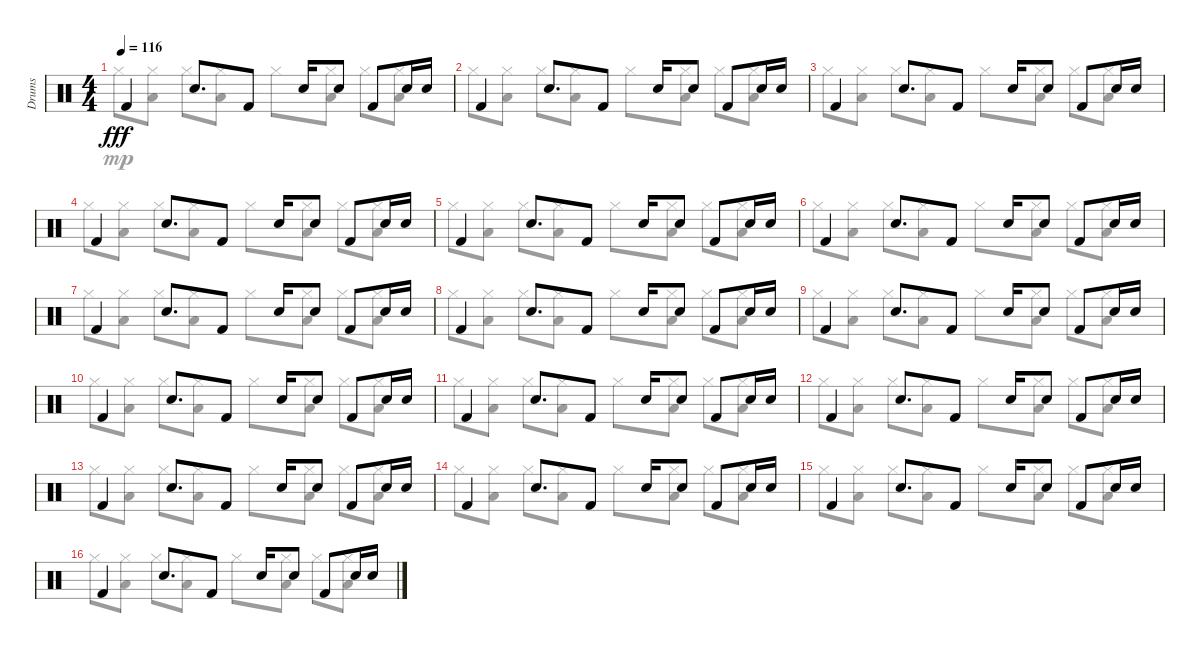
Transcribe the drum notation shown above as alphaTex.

\track ("Drums" "Drums") {instrument percussion}
\staff {score}
\articulation defaults
\voice
\ts (4 4)
\tempo 116
\clef neutral
\ks c "Kick (hit) 2".4{dy fff} "Electric Snare (hit)".8{d} "Kick (hit) 2".8 "Electric Snare (hit)".16 "Electric Snare (hit)".8 "Kick (hit) 2".8 "Electric Snare (hit)".16 "Electric Snare (hit)".16
|
"Kick (hit) 2".4 "Electric Snare (hit)".8{d} "Kick (hit) 2".8 "Electric Snare (hit)".16 "Electric Snare (hit)".8 "Kick (hit) 2".8 "Electric Snare (hit)".16 "Electric Snare (hit)".16 |
"Kick (hit) 2".4 "Electric Snare (hit)".8{d} "Kick (hit) 2".8 "Electric Snare (hit)".16 "Electric Snare (hit)".8 "Kick (hit) 2".8 "Electric Snare (hit)".16 "Electric Snare (hit)".16 |
"Kick (hit) 2".4 "Electric Snare (hit)".8{d} "Kick (hit) 2".8 "Electric Snare (hit)".16 "Electric Snare (hit)".8 "Kick (hit) 2".8 "Electric Snare (hit)".16 "Electric Snare (hit)".16 |
"Kick (hit) 2".4 "Electric Snare (hit)".8{d} "Kick (hit) 2".8 "Electric Snare (hit)".16 "Electric Snare (hit)".8 "Kick (hit) 2".8 "Electric Snare (hit)".16 "Electric Snare (hit)".16 |
"Kick (hit) 2".4 "Electric Snare (hit)".8{d} "Kick (hit) 2".8 "Electric Snare (hit)".16 "Electric Snare (hit)".8 "Kick (hit) 2".8 "Electric Snare (hit)".16 "Electric Snare (hit)".16 |
"Kick (hit) 2".4 "Electric Snare (hit)".8{d} "Kick (hit) 2".8 "Electric Snare (hit)".16 "Electric Snare (hit)".8 "Kick (hit) 2".8 "Electric Snare (hit)".16 "Electric Snare (hit)".16 |
"Kick (hit) 2".4 "Electric Snare (hit)".8{d} "Kick (hit) 2".8 "Electric Snare (hit)".16 "Electric Snare (hit)".8 "Kick (hit) 2".8 "Electric Snare (hit)".16 "Electric Snare (hit)".16 |
"Kick (hit) 2".4 "Electric Snare (hit)".8{d} "Kick (hit) 2".8 "Electric Snare (hit)".16 "Electric Snare (hit)".8 "Kick (hit) 2".8 "Electric Snare (hit)".16 "Electric Snare (hit)".16 |
"Kick (hit) 2".4 "Electric Snare (hit)".8{d} "Kick (hit) 2".8 "Electric Snare (hit)".16 "Electric Snare (hit)".8 "Kick (hit) 2".8 "Electric Snare (hit)".16 "Electric Snare (hit)".16 |
"Kick (hit) 2".4 "Electric Snare (hit)".8{d} "Kick (hit) 2".8 "Electric Snare (hit)".16 "Electric Snare (hit)".8 "Kick (hit) 2".8 "Electric Snare (hit)".16 "Electric Snare (hit)".16 |
"Kick (hit) 2".4 "Electric Snare (hit)".8{d} "Kick (hit) 2".8 "Electric Snare (hit)".16 "Electric Snare (hit)".8 "Kick (hit) 2".8 "Electric Snare (hit)".16 "Electric Snare (hit)".16 |
"Kick (hit) 2".4 "Electric Snare (hit)".8{d} "Kick (hit) 2".8 "Electric Snare (hit)".16 "Electric Snare (hit)".8 "Kick (hit) 2".8 "Electric Snare (hit)".16 "Electric Snare (hit)".16 |
"Kick (hit) 2".4 "Electric Snare (hit)".8{d} "Kick (hit) 2".8 "Electric Snare (hit)".16 "Electric Snare (hit)".8 "Kick (hit) 2".8 "Electric Snare (hit)".16 "Electric Snare (hit)".16 |
"Kick (hit) 2".4 "Electric Snare (hit)".8{d} "Kick (hit) 2".8 "Electric Snare (hit)".16 "Electric Snare (hit)".8 "Kick (hit) 2".8 "Electric Snare (hit)".16 "Electric Snare (hit)".16 |
"Kick (hit) 2".4 "Electric Snare (hit)".8{d} "Kick (hit) 2".8 "Electric Snare (hit)".16 "Electric Snare (hit)".8 "Kick (hit) 2".8 "Electric Snare (hit)".16 "Electric Snare (hit)".16
\voice
\clef neutral
\ottava regular
\simile none
\ks c "Hi-Hat (closed)".8{dy mp}
("Hi-Hat (closed)" "Low Floor Tom (hit)").8 "Hi-Hat (closed)".8 ("Hi-Hat (closed)" "Low Floor Tom (hit)").8 "Hi-Hat (closed)".8 ("Hi-Hat (closed)" "Low Floor Tom (hit)").8 "Hi-Hat (closed)".8 ("Hi-Hat (closed)" "Low Floor Tom (hit)").8 |
"Hi-Hat (closed)".8 ("Hi-Hat (closed)" "Low Floor Tom (hit)").8 "Hi-Hat (closed)".8 ("Hi-Hat (closed)" "Low Floor Tom (hit)").8 "Hi-Hat (closed)".8 ("Hi-Hat (closed)" "Low Floor Tom (hit)").8 "Hi-Hat (closed)".8 ("Hi-Hat (closed)" "Low Floor Tom (hit)").8 |
"Hi-Hat (closed)".8 ("Hi-Hat (closed)" "Low Floor Tom (hit)").8 "Hi-Hat (closed)".8 ("Hi-Hat (closed)" "Low Floor Tom (hit)").8 "Hi-Hat (closed)".8 ("Hi-Hat (closed)" "Low Floor Tom (hit)").8 "Hi-Hat (closed)".8 ("Hi-Hat (closed)" "Low Floor Tom (hit)").8 |
"Hi-Hat (closed)".8 ("Hi-Hat (closed)" "Low Floor Tom (hit)").8 "Hi-Hat (closed)".8 ("Hi-Hat (closed)" "Low Floor Tom (hit)").8 "Hi-Hat (closed)".8 ("Hi-Hat (closed)" "Low Floor Tom (hit)").8 "Hi-Hat (closed)".8 ("Hi-Hat (closed)" "Low Floor Tom (hit)").8 |
"Hi-Hat (closed)".8 ("Hi-Hat (closed)" "Low Floor Tom (hit)").8 "Hi-Hat (closed)".8 ("Hi-Hat (closed)" "Low Floor Tom (hit)").8 "Hi-Hat (closed)".8 ("Hi-Hat (closed)" "Low Floor Tom (hit)").8 "Hi-Hat (closed)".8 ("Hi-Hat (closed)" "Low Floor Tom (hit)").8 |
"Hi-Hat (closed)".8 ("Hi-Hat (closed)" "Low Floor Tom (hit)").8 "Hi-Hat (closed)".8 ("Hi-Hat (closed)" "Low Floor Tom (hit)").8 "Hi-Hat (closed)".8 ("Hi-Hat (closed)" "Low Floor Tom (hit)").8 "Hi-Hat (closed)".8 ("Hi-Hat (closed)" "Low Floor Tom (hit)").8 |
"Hi-Hat (closed)".8 ("Hi-Hat (closed)" "Low Floor Tom (hit)").8 "Hi-Hat (closed)".8 ("Hi-Hat (closed)" "Low Floor Tom (hit)").8 "Hi-Hat (closed)".8 ("Hi-Hat (closed)" "Low Floor Tom (hit)").8 "Hi-Hat (closed)".8 ("Hi-Hat (closed)" "Low Floor Tom (hit)").8 |
"Hi-Hat (closed)".8 ("Hi-Hat (closed)" "Low Floor Tom (hit)").8 "Hi-Hat (closed)".8 ("Hi-Hat (closed)" "Low Floor Tom (hit)").8 "Hi-Hat (closed)".8 ("Hi-Hat (closed)" "Low Floor Tom (hit)").8 "Hi-Hat (closed)".8 ("Hi-Hat (closed)" "Low Floor Tom (hit)").8 |
"Hi-Hat (closed)".8 ("Hi-Hat (closed)" "Low Floor Tom (hit)").8 "Hi-Hat (closed)".8 ("Hi-Hat (closed)" "Low Floor Tom (hit)").8 "Hi-Hat (closed)".8 ("Hi-Hat (closed)" "Low Floor Tom (hit)").8 "Hi-Hat (closed)".8 ("Hi-Hat (closed)" "Low Floor Tom (hit)").8 |
"Hi-Hat (closed)".8 ("Hi-Hat (closed)" "Low Floor Tom (hit)").8 "Hi-Hat (closed)".8 ("Hi-Hat (closed)" "Low Floor Tom (hit)").8 "Hi-Hat (closed)".8 ("Hi-Hat (closed)" "Low Floor Tom (hit)").8 "Hi-Hat (closed)".8 ("Hi-Hat (closed)" "Low Floor Tom (hit)").8 |
"Hi-Hat (closed)".8 ("Hi-Hat (closed)" "Low Floor Tom (hit)").8 "Hi-Hat (closed)".8 ("Hi-Hat (closed)" "Low Floor Tom (hit)").8 "Hi-Hat (closed)".8 ("Hi-Hat (closed)" "Low Floor Tom (hit)").8 "Hi-Hat (closed)".8 ("Hi-Hat (closed)" "Low Floor Tom (hit)").8 |
"Hi-Hat (closed)".8 ("Hi-Hat (closed)" "Low Floor Tom (hit)").8 "Hi-Hat (closed)".8 ("Hi-Hat (closed)" "Low Floor Tom (hit)").8 "Hi-Hat (closed)".8 ("Hi-Hat (closed)" "Low Floor Tom (hit)").8 "Hi-Hat (closed)".8 ("Hi-Hat (closed)" "Low Floor Tom (hit)").8 |
"Hi-Hat (closed)".8 ("Hi-Hat (closed)" "Low Floor Tom (hit)").8 "Hi-Hat (closed)".8 ("Hi-Hat (closed)" "Low Floor Tom (hit)").8 "Hi-Hat (closed)".8 ("Hi-Hat (closed)" "Low Floor Tom (hit)").8 "Hi-Hat (closed)".8 ("Hi-Hat (closed)" "Low Floor Tom (hit)").8 |
"Hi-Hat (closed)".8 ("Hi-Hat (closed)" "Low Floor Tom (hit)").8 "Hi-Hat (closed)".8 ("Hi-Hat (closed)" "Low Floor Tom (hit)").8 "Hi-Hat (closed)".8 ("Hi-Hat (closed)" "Low Floor Tom (hit)").8 "Hi-Hat (closed)".8 ("Hi-Hat (closed)" "Low Floor Tom (hit)").8 |
"Hi-Hat (closed)".8 ("Hi-Hat (closed)" "Low Floor Tom (hit)").8 "Hi-Hat (closed)".8 ("Hi-Hat (closed)" "Low Floor Tom (hit)").8 "Hi-Hat (closed)".8 ("Hi-Hat (closed)" "Low Floor Tom (hit)").8 "Hi-Hat (closed)".8 ("Hi-Hat (closed)" "Low Floor Tom (hit)").8 |
"Hi-Hat (closed)".8 ("Hi-Hat (closed)" "Low Floor Tom (hit)").8 "Hi-Hat (closed)".8 ("Hi-Hat (closed)" "Low Floor Tom (hit)").8 "Hi-Hat (closed)".8 ("Hi-Hat (closed)" "Low Floor Tom (hit)").8 "Hi-Hat (closed)".8 ("Hi-Hat (closed)" "Low Floor Tom (hit)").8
